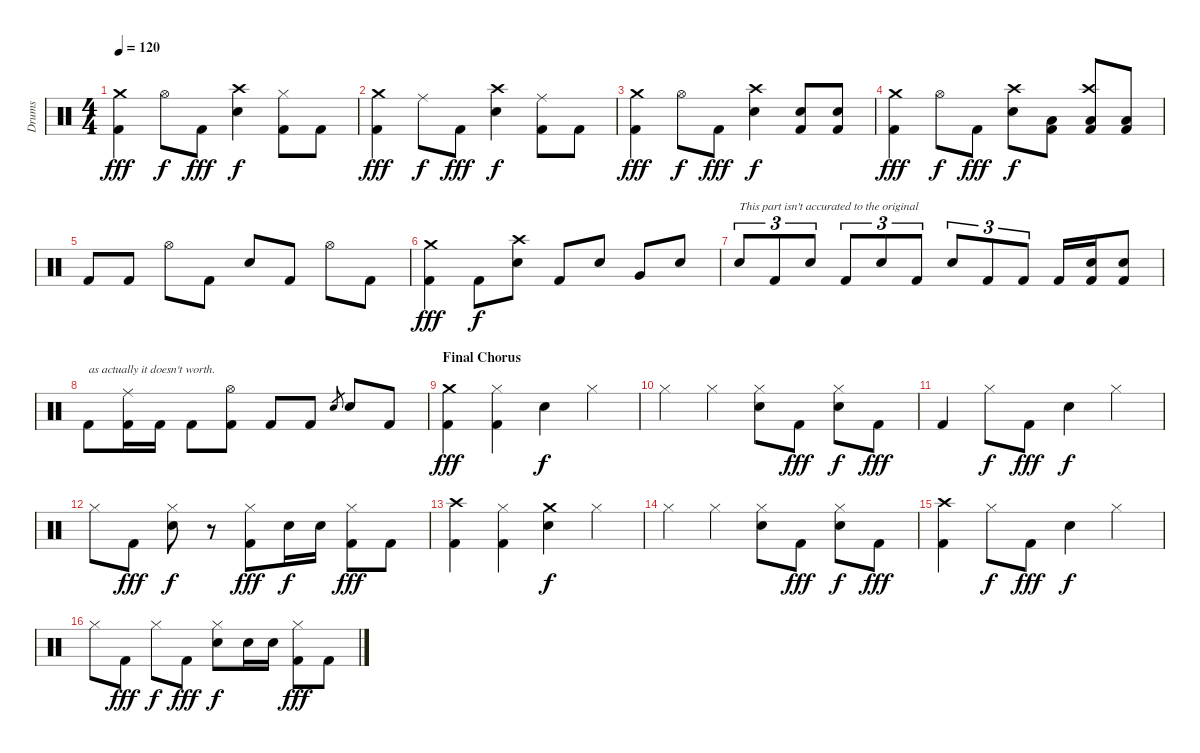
\track ("Drums" "Drums") {instrument percussion}
\staff {score}
\articulation defaults
\ts (4 4)
\tempo 120
\clef neutral
\ks c
("Kick (hit) 2" "Crash medium (hit)").4{dy fff} "Hi-Hat (open)".8{dy f} "Kick (hit) 2".8{dy fff} ("Snare (hit) 2" "Crash high (hit)").4{dy f} ("Kick (hit) 2" "Hi-Hat (closed)").8 "Kick (hit) 2".8 |
("Kick (hit) 2" "Crash medium (hit)").4{dy fff} "Ride (middle)".8{dy f} "Kick (hit) 2".8{dy fff} ("Snare (hit) 2" "Crash high (hit)").4{dy f} ("Kick (hit) 2" "Ride (middle)").8 "Kick (hit) 2".8 |
("Kick (hit) 2" "Crash medium (hit)").4{dy fff} "Hi-Hat (open)".8{dy f} "Kick (hit) 2".8{dy fff} ("Snare (hit) 2" "Crash high (hit)").4{dy f} ("Kick (hit) 2" "Snare (hit) 2").8 ("Kick (hit) 2" "Snare (hit) 2").8 |
("Kick (hit) 2" "Crash medium (hit)").4{dy fff} "Hi-Hat (open)".8{dy f} "Kick (hit) 2".8{dy fff} ("Snare (hit) 2" "Crash high (hit)").8{dy f} ("Kick (hit) 2" "Low Floor Tom (hit)").8 ("Kick (hit) 2" "Low Floor Tom (hit)" "Crash high (hit)").8 ("Kick (hit) 2" "Low Floor Tom (hit)").8 |
"Kick (hit) 2".8 "Kick (hit) 2".8 "Hi-Hat (open)".8 "Kick (hit) 2".8 "Snare (hit) 2".8 "Kick (hit) 2".8 "Hi-Hat (open)".8 "Kick (hit) 2".8 |
("Kick (hit) 2" "Crash medium (hit)").4{dy fff} "Kick (hit) 2".8{dy f} ("Snare (hit) 2" "Crash high (hit)").8 "Kick (hit) 2".8 "Snare (hit) 2".8 "Very Low Tom (hit)".8 "Snare (hit) 2".8 |
"Snare (hit) 2".8{tu (3 2) txt "This part isn't accurated to the original"} "Kick (hit) 2".8{tu (3 2)} "Snare (hit) 2".8{tu (3 2)} "Kick (hit) 2".8{tu (3 2)} "Snare (hit) 2".8{tu (3 2)} "Kick (hit) 2".8{tu (3 2)} "Snare (hit) 2".8{tu (3 2)} "Kick (hit) 2".8{tu (3 2)} "Kick (hit) 2".8{tu (3 2)} "Kick (hit) 2".16 ("Kick (hit) 2" "Snare (hit) 2").16 ("Kick (hit) 2" "Snare (hit) 2").8 |
"Kick (hit) 2".8{txt "as actually it doesn't worth."} ("Kick (hit) 2" "Ride (middle)").16 "Kick (hit) 2".16 "Kick (hit) 2".8 ("Kick (hit) 2" "Hi-Hat (open)").8 "Kick (hit) 2".8 "Kick (hit) 2".8 "Snare (hit) 2".8{gr} "Snare (hit) 2".8 "Kick (hit) 2".8 |
\section ("" "Final Chorus")
("Kick (hit) 2" "Crash medium (hit)").4{dy fff} ("Kick (hit) 2" "Hi-Hat (closed)").4 "Snare (hit) 2".4{dy f} "Hi-Hat (closed)".4 |
"Hi-Hat (closed)".4 "Hi-Hat (closed)".4 ("Hi-Hat (closed)" "Snare (hit) 2").8 "Kick (hit) 2".8{dy fff} ("Hi-Hat (closed)" "Snare (hit) 2").8{dy f} "Kick (hit) 2".8{dy fff} |
"Kick (hit) 2".4 "Hi-Hat (closed)".8{dy f} "Kick (hit) 2".8{dy fff} "Snare (hit) 2".4{dy f} "Hi-Hat (closed)".4 |
"Hi-Hat (closed)".8 "Kick (hit) 2".8{dy fff} ("Hi-Hat (closed)" "Snare (hit) 2").8{dy f} r.8 ("Kick (hit) 2" "Hi-Hat (closed)").8{dy fff} "Snare (hit) 2".16{dy f} "Snare (hit) 2".16 ("Kick (hit) 2" "Hi-Hat (closed)").8{dy fff} "Kick (hit) 2".8 |
("Kick (hit) 2" "Crash high (hit)").4 ("Kick (hit) 2" "Hi-Hat (closed)").4 ("Snare (hit) 2" "Crash medium (hit)").4{dy f} "Hi-Hat (closed)".4 |
"Hi-Hat (closed)".4 "Hi-Hat (closed)".4 ("Hi-Hat (closed)" "Snare (hit) 2").8 "Kick (hit) 2".8{dy fff} ("Hi-Hat (closed)" "Snare (hit) 2").8{dy f} "Kick (hit) 2".8{dy fff} |
("Kick (hit) 2" "Crash high (hit)").4 "Hi-Hat (closed)".8{dy f} "Kick (hit) 2".8{dy fff} "Snare (hit) 2".4{dy f} "Hi-Hat (closed)".4 |
"Hi-Hat (closed)".8 "Kick (hit) 2".8{dy fff} "Hi-Hat (closed)".8{dy f} "Kick (hit) 2".8{dy fff} ("Hi-Hat (closed)" "Snare (hit) 2").8{dy f} "Snare (hit) 2".16 "Snare (hit) 2".16 ("Kick (hit) 2" "Hi-Hat (closed)").8{dy fff} "Kick (hit) 2".8
